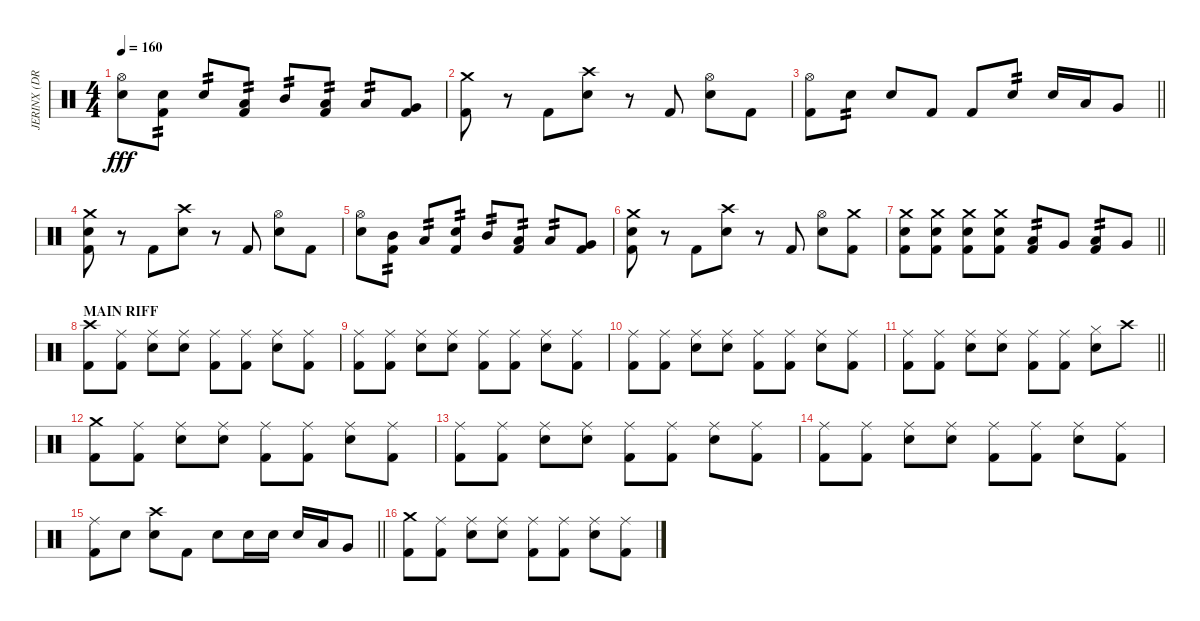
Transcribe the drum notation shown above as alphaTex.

\track ("JERINX (DRUM)" "JERINX (DR") {instrument percussion}
\staff {score}
\articulation defaults
\ts (4 4)
\tempo 160
\clef neutral
\ks c
("Hi-Hat (open)" "Snare (hit) 2").8{dy fff} ("Snare (hit) 2" "Kick (hit) 2").8{tp 2} "Snare (hit) 2".8{tp 2} ("Kick (hit) 2" "Low Tom (hit)").8{tp 2} "Mid Tom (hit)".8{tp 2} ("Kick (hit) 2" "Low Tom (hit)").8{tp 2} "Low Tom (hit)".8{tp 2} ("Kick (hit) 2" "Very Low Tom (hit)").8 |
("Kick (hit) 2" "Crash medium (hit)").8 r.8 "Kick (hit) 2".8 ("Snare (hit) 2" "Crash high (hit)").8 r.8 "Kick (hit) 2".8 ("Hi-Hat (open)" "Snare (hit) 2").8 "Kick (hit) 2".8 |
\barLineRight lightlight
("Hi-Hat (open)" "Kick (hit) 2").8 "Snare (hit) 2".8{tp 2} "Snare (hit) 2".8 "Kick (hit) 2".8 "Kick (hit) 2".8 "Snare (hit) 2".8{tp 2} "Snare (hit) 2".16 "Low Tom (hit)".16 "Very Low Tom (hit)".8 |
("Snare (hit) 2" "Kick (hit) 2" "Crash medium (hit)").8 r.8 "Kick (hit) 2".8 ("Snare (hit) 2" "Crash high (hit)").8 r.8 "Kick (hit) 2".8 ("Hi-Hat (open)" "Snare (hit) 2").8 "Kick (hit) 2".8 |
("Hi-Hat (open)" "Snare (hit) 2").8 ("Kick (hit) 2" "Mid Tom (hit)").8{tp 2} "Low Tom (hit)".8{tp 2} ("Snare (hit) 2" "Kick (hit) 2").8{tp 2} "Mid Tom (hit)".8{tp 2} ("Kick (hit) 2" "Low Tom (hit)").8{tp 2} "Low Tom (hit)".8{tp 2} ("Kick (hit) 2" "Very Low Tom (hit)").8 |
("Snare (hit) 2" "Kick (hit) 2" "Crash medium (hit)").8 r.8 "Kick (hit) 2".8 ("Snare (hit) 2" "Crash high (hit)").8 r.8 "Kick (hit) 2".8 ("Hi-Hat (open)" "Snare (hit) 2").8 ("Kick (hit) 2" "Crash medium (hit)").8 |
\barLineRight lightlight
("Snare (hit) 2" "Kick (hit) 2" "Crash medium (hit)").8 ("Snare (hit) 2" "Kick (hit) 2" "Crash medium (hit)").8 ("Snare (hit) 2" "Kick (hit) 2" "Crash medium (hit)").8 ("Snare (hit) 2" "Kick (hit) 2" "Crash medium (hit)").8 ("Kick (hit) 2" "Low Tom (hit)").8{tp 2} "Very Low Tom (hit)".8 ("Kick (hit) 2" "Low Tom (hit)").8{tp 2} "Very Low Tom (hit)".8 |
\section ("" "MAIN RIFF")
("Kick (hit) 2" "Crash high (hit)").8 ("Kick (hit) 2" "Ride (middle)").8 ("Snare (hit) 2" "Ride (middle)").8 ("Snare (hit) 2" "Ride (middle)").8 ("Kick (hit) 2" "Ride (middle)").8 ("Kick (hit) 2" "Ride (middle)").8 ("Snare (hit) 2" "Ride (middle)").8 ("Kick (hit) 2" "Ride (middle)").8 |
("Kick (hit) 2" "Ride (middle)").8 ("Kick (hit) 2" "Ride (middle)").8 ("Snare (hit) 2" "Ride (middle)").8 ("Snare (hit) 2" "Ride (middle)").8 ("Kick (hit) 2" "Ride (middle)").8 ("Kick (hit) 2" "Ride (middle)").8 ("Snare (hit) 2" "Ride (middle)").8 ("Kick (hit) 2" "Ride (middle)").8 |
("Kick (hit) 2" "Ride (middle)").8 ("Kick (hit) 2" "Ride (middle)").8 ("Snare (hit) 2" "Ride (middle)").8 ("Snare (hit) 2" "Ride (middle)").8 ("Kick (hit) 2" "Ride (middle)").8 ("Kick (hit) 2" "Ride (middle)").8 ("Snare (hit) 2" "Ride (middle)").8 ("Kick (hit) 2" "Ride (middle)").8 |
\barLineRight lightlight
("Kick (hit) 2" "Ride (middle)").8 ("Kick (hit) 2" "Ride (middle)").8 ("Snare (hit) 2" "Ride (middle)").8 ("Snare (hit) 2" "Ride (middle)").8 ("Kick (hit) 2" "Ride (middle)").8 ("Kick (hit) 2" "Ride (middle)").8 ("Hi-Hat (closed)" "Snare (hit) 2").8 "Crash high (hit)".8 |
("Kick (hit) 2" "Crash medium (hit)").8 ("Kick (hit) 2" "Ride (middle)").8 ("Snare (hit) 2" "Ride (middle)").8 ("Snare (hit) 2" "Ride (middle)").8 ("Kick (hit) 2" "Ride (middle)").8 ("Kick (hit) 2" "Ride (middle)").8 ("Snare (hit) 2" "Ride (middle)").8 ("Kick (hit) 2" "Ride (middle)").8 |
("Kick (hit) 2" "Ride (middle)").8 ("Kick (hit) 2" "Ride (middle)").8 ("Snare (hit) 2" "Ride (middle)").8 ("Snare (hit) 2" "Ride (middle)").8 ("Kick (hit) 2" "Ride (middle)").8 ("Kick (hit) 2" "Ride (middle)").8 ("Snare (hit) 2" "Ride (middle)").8 ("Kick (hit) 2" "Ride (middle)").8 |
("Kick (hit) 2" "Ride (middle)").8 ("Kick (hit) 2" "Ride (middle)").8 ("Snare (hit) 2" "Ride (middle)").8 ("Snare (hit) 2" "Ride (middle)").8 ("Kick (hit) 2" "Ride (middle)").8 ("Kick (hit) 2" "Ride (middle)").8 ("Snare (hit) 2" "Ride (middle)").8 ("Kick (hit) 2" "Ride (middle)").8 |
\barLineRight lightlight
("Kick (hit) 2" "Ride (middle)").8 "Snare (hit) 2".8 ("Snare (hit) 2" "Crash high (hit)").8 "Kick (hit) 2".8 "Snare (hit) 2".8 "Snare (hit) 2".16 "Snare (hit) 2".16 "Snare (hit) 2".16 "Low Tom (hit)".16 "Very Low Tom (hit)".8 |
("Kick (hit) 2" "Crash medium (hit)").8 ("Kick (hit) 2" "Ride (middle)").8 ("Snare (hit) 2" "Ride (middle)").8 ("Snare (hit) 2" "Ride (middle)").8 ("Kick (hit) 2" "Ride (middle)").8 ("Kick (hit) 2" "Ride (middle)").8 ("Snare (hit) 2" "Ride (middle)").8 ("Kick (hit) 2" "Ride (middle)").8
